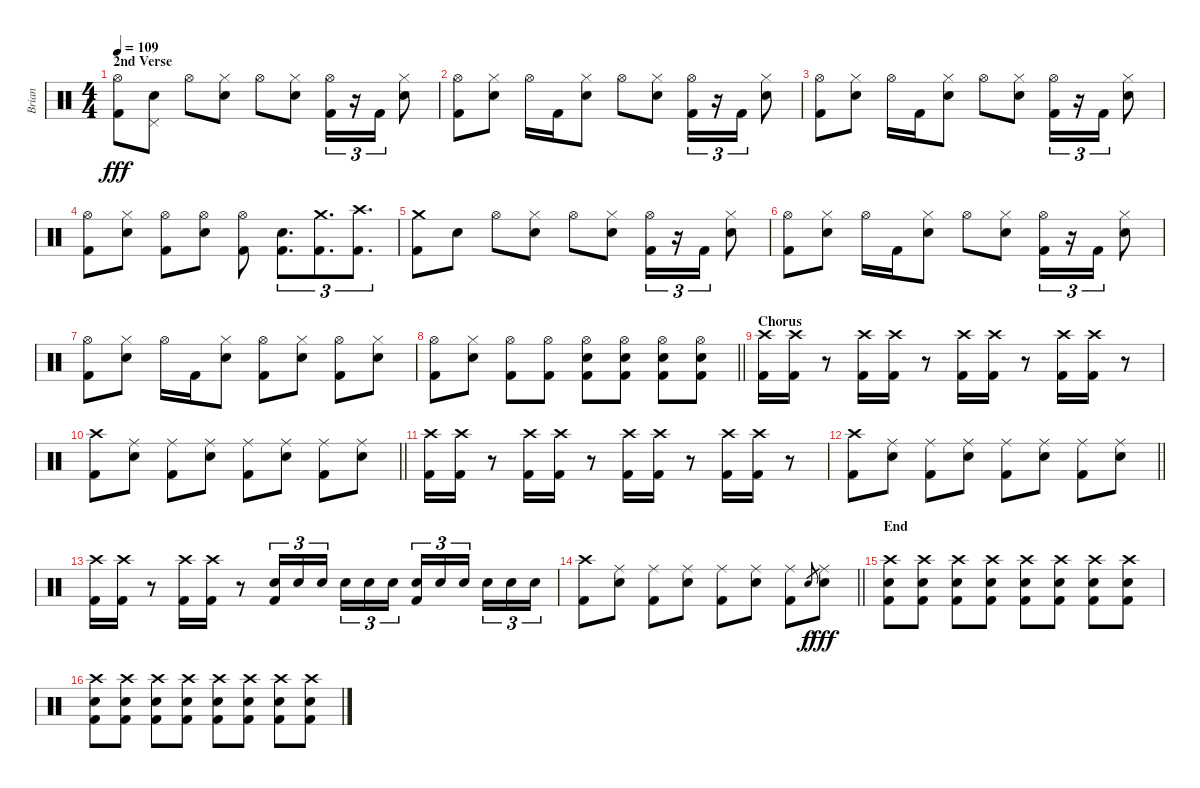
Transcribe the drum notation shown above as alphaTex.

\track ("Brian" "Brian") {instrument percussion}
\staff {score}
\articulation defaults
\ts (4 4)
\section ("" "2nd Verse")
\tempo 109
\clef neutral
\ks c
("Hi-Hat (open)" "Kick (hit) 2").8{dy fff} ("Pedal Hi-Hat (hit)" "Electric Snare (hit)").8 "Hi-Hat (open)".8 ("Hi-Hat (closed)" "Electric Snare (hit)").8 "Hi-Hat (open)".8 ("Hi-Hat (closed)" "Electric Snare (hit)").8 ("Hi-Hat (open)" "Kick (hit) 2").16{tu (3 2)} r.16{tu (3 2)} "Kick (hit) 2".16{tu (3 2)} ("Hi-Hat (closed)" "Electric Snare (hit)").8 |
("Hi-Hat (open)" "Kick (hit) 2").8 ("Hi-Hat (closed)" "Electric Snare (hit)").8 "Hi-Hat (open)".16 "Kick (hit) 2".16 ("Hi-Hat (closed)" "Electric Snare (hit)").8 "Hi-Hat (open)".8 ("Hi-Hat (closed)" "Electric Snare (hit)").8 ("Hi-Hat (open)" "Kick (hit) 2").16{tu (3 2)} r.16{tu (3 2)} "Kick (hit) 2".16{tu (3 2)} ("Hi-Hat (closed)" "Electric Snare (hit)").8 |
("Hi-Hat (open)" "Kick (hit) 2").8 ("Hi-Hat (closed)" "Electric Snare (hit)").8 "Hi-Hat (open)".16 "Kick (hit) 2".16 ("Hi-Hat (closed)" "Electric Snare (hit)").8 "Hi-Hat (open)".8 ("Hi-Hat (closed)" "Electric Snare (hit)").8 ("Hi-Hat (open)" "Kick (hit) 2").16{tu (3 2)} r.16{tu (3 2)} "Kick (hit) 2".16{tu (3 2)} ("Hi-Hat (closed)" "Electric Snare (hit)").8 |
("Hi-Hat (open)" "Kick (hit) 2").8 ("Hi-Hat (closed)" "Electric Snare (hit)").8 ("Hi-Hat (open)" "Kick (hit) 2").8 ("Hi-Hat (open)" "Electric Snare (hit)").8 ("Hi-Hat (open)" "Kick (hit) 2").8 ("Kick (hit) 2" "Electric Snare (hit)").8{d tu (3 2)} ("Crash medium (hit)" "Kick (hit) 2").8{d tu (3 2)} ("Crash high (hit)" "Kick (hit) 2").8{d tu (3 2)} |
("Crash medium (hit)" "Kick (hit) 2").8 "Electric Snare (hit)".8 "Hi-Hat (open)".8 ("Hi-Hat (closed)" "Electric Snare (hit)").8 "Hi-Hat (open)".8 ("Hi-Hat (closed)" "Electric Snare (hit)").8 ("Hi-Hat (open)" "Kick (hit) 2").16{tu (3 2)} r.16{tu (3 2)} "Kick (hit) 2".16{tu (3 2)} ("Hi-Hat (closed)" "Electric Snare (hit)").8 |
("Hi-Hat (open)" "Kick (hit) 2").8 ("Hi-Hat (closed)" "Electric Snare (hit)").8 "Hi-Hat (open)".16 "Kick (hit) 2".16 ("Hi-Hat (closed)" "Electric Snare (hit)").8 "Hi-Hat (open)".8 ("Hi-Hat (closed)" "Electric Snare (hit)").8 ("Hi-Hat (open)" "Kick (hit) 2").16{tu (3 2)} r.16{tu (3 2)} "Kick (hit) 2".16{tu (3 2)} ("Hi-Hat (closed)" "Electric Snare (hit)").8 |
("Hi-Hat (open)" "Kick (hit) 2").8 ("Hi-Hat (closed)" "Electric Snare (hit)").8 "Hi-Hat (open)".16 "Kick (hit) 2".16 ("Hi-Hat (closed)" "Electric Snare (hit)").8 ("Hi-Hat (open)" "Kick (hit) 2").8 ("Hi-Hat (closed)" "Electric Snare (hit)").8 ("Hi-Hat (open)" "Kick (hit) 2").8 ("Hi-Hat (closed)" "Electric Snare (hit)").8 |
\barLineRight lightlight
("Hi-Hat (open)" "Kick (hit) 2").8 ("Hi-Hat (closed)" "Electric Snare (hit)").8 ("Hi-Hat (open)" "Kick (hit) 2").8 ("Hi-Hat (open)" "Kick (hit) 2").8 ("Hi-Hat (open)" "Electric Snare (hit)" "Kick (hit) 2").8 ("Hi-Hat (open)" "Electric Snare (hit)" "Kick (hit) 2").8 ("Hi-Hat (open)" "Electric Snare (hit)" "Kick (hit) 2").8 ("Hi-Hat (open)" "Electric Snare (hit)" "Kick (hit) 2").8 |
\section ("" "Chorus")
("Crash high (hit)" "Kick (hit) 2").16 ("Crash high (hit)" "Kick (hit) 2").16 r.8{volume 0} ("Crash high (hit)" "Kick (hit) 2").16{volume 14} ("Crash high (hit)" "Kick (hit) 2").16 r.8{volume 0} ("Crash high (hit)" "Kick (hit) 2").16{volume 14} ("Crash high (hit)" "Kick (hit) 2").16 r.8{volume 0} ("Crash high (hit)" "Kick (hit) 2").16{volume 14} ("Crash high (hit)" "Kick (hit) 2").16 r.8{volume 0} |
\barLineRight lightlight
("Crash high (hit)" "Kick (hit) 2").8{volume 14} ("Ride (middle)" "Electric Snare (hit)").8 ("Ride (middle)" "Kick (hit) 2").8 ("Ride (middle)" "Electric Snare (hit)").8 ("Ride (middle)" "Kick (hit) 2").8 ("Ride (middle)" "Electric Snare (hit)").8 ("Ride (middle)" "Kick (hit) 2").8 ("Ride (middle)" "Electric Snare (hit)").8 |
("Crash high (hit)" "Kick (hit) 2").16 ("Crash high (hit)" "Kick (hit) 2").16 r.8{volume 0} ("Crash high (hit)" "Kick (hit) 2").16{volume 14} ("Crash high (hit)" "Kick (hit) 2").16 r.8{volume 0} ("Crash high (hit)" "Kick (hit) 2").16{volume 14} ("Crash high (hit)" "Kick (hit) 2").16 r.8{volume 0} ("Crash high (hit)" "Kick (hit) 2").16{volume 14} ("Crash high (hit)" "Kick (hit) 2").16 r.8{volume 0} |
\barLineRight lightlight
("Crash high (hit)" "Kick (hit) 2").8{volume 14} ("Ride (middle)" "Electric Snare (hit)").8 ("Ride (middle)" "Kick (hit) 2").8 ("Ride (middle)" "Electric Snare (hit)").8 ("Ride (middle)" "Kick (hit) 2").8 ("Ride (middle)" "Electric Snare (hit)").8 ("Ride (middle)" "Kick (hit) 2").8 ("Ride (middle)" "Electric Snare (hit)").8 |
("Crash high (hit)" "Kick (hit) 2").16 ("Crash high (hit)" "Kick (hit) 2").16 r.8{volume 0} ("Crash high (hit)" "Kick (hit) 2").16{volume 14} ("Crash high (hit)" "Kick (hit) 2").16 r.8 ("Electric Snare (hit)" "Kick (hit) 2").16{tu (3 2)} "Electric Snare (hit)".16{tu (3 2)} "Electric Snare (hit)".16{tu (3 2) beam splitsecondary} "Electric Snare (hit)".16{tu (3 2)} "Electric Snare (hit)".16{tu (3 2)} "Electric Snare (hit)".16{tu (3 2)} ("Electric Snare (hit)" "Kick (hit) 2").16{tu (3 2)} "Electric Snare (hit)".16{tu (3 2)} "Electric Snare (hit)".16{tu (3 2) beam splitsecondary} "Electric Snare (hit)".16{tu (3 2)} "Electric Snare (hit)".16{tu (3 2)} "Electric Snare (hit)".16{tu (3 2)} |
\barLineRight lightlight
("Crash high (hit)" "Kick (hit) 2").8 ("Ride (middle)" "Electric Snare (hit)").8 ("Ride (middle)" "Kick (hit) 2").8 ("Ride (middle)" "Electric Snare (hit)").8 ("Ride (middle)" "Kick (hit) 2").8 ("Ride (middle)" "Electric Snare (hit)").8 ("Ride (middle)" "Kick (hit) 2").8 "Electric Snare (hit)".8{gr dy f} ("Ride (middle)" "Electric Snare (hit)").8{dy fff} |
\section ("" "End")
("Crash high (hit)" "Electric Snare (hit)" "Kick (hit) 2").8 ("Crash high (hit)" "Electric Snare (hit)" "Kick (hit) 2").8 ("Crash high (hit)" "Electric Snare (hit)" "Kick (hit) 2").8 ("Crash high (hit)" "Electric Snare (hit)" "Kick (hit) 2").8 ("Crash high (hit)" "Electric Snare (hit)" "Kick (hit) 2").8 ("Crash high (hit)" "Electric Snare (hit)" "Kick (hit) 2").8 ("Crash high (hit)" "Electric Snare (hit)" "Kick (hit) 2").8 ("Crash high (hit)" "Electric Snare (hit)" "Kick (hit) 2").8 |
("Crash high (hit)" "Electric Snare (hit)" "Kick (hit) 2").8 ("Crash high (hit)" "Electric Snare (hit)" "Kick (hit) 2").8 ("Crash high (hit)" "Electric Snare (hit)" "Kick (hit) 2").8 ("Crash high (hit)" "Electric Snare (hit)" "Kick (hit) 2").8 ("Crash high (hit)" "Electric Snare (hit)" "Kick (hit) 2").8 ("Crash high (hit)" "Electric Snare (hit)" "Kick (hit) 2").8 ("Crash high (hit)" "Electric Snare (hit)" "Kick (hit) 2").8 ("Crash high (hit)" "Electric Snare (hit)" "Kick (hit) 2").8
